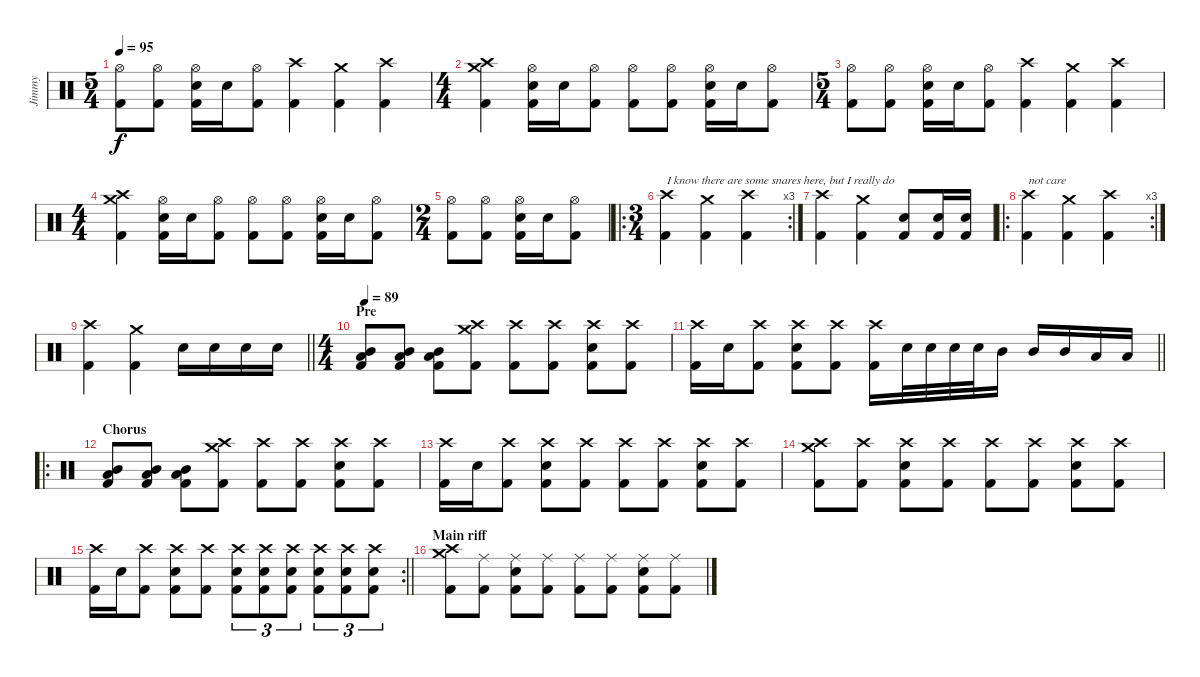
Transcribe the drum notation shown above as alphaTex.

\track ("Jimmy" "Jimmy") {instrument percussion}
\staff {score}
\articulation defaults
\ts (5 4)
\tempo 95
\clef neutral
\ks c
("Kick (hit) 2" "Hi-Hat (open)").8{dy f} ("Kick (hit) 2" "Hi-Hat (open)").8 ("Kick (hit) 2" "Hi-Hat (open)" "Electric Snare (hit)").16 "Electric Snare (hit)".16 ("Kick (hit) 2" "Hi-Hat (open)").8 ("Crash high (hit)" "Kick (hit) 2").4 ("Crash medium (hit)" "Kick (hit) 2").4 ("Crash high (hit)" "Kick (hit) 2").4 |
\ts (4 4)
("Crash medium (hit)" "Crash high (hit)" "Kick (hit) 2").4 ("Kick (hit) 2" "Hi-Hat (open)" "Electric Snare (hit)").16 "Electric Snare (hit)".16 ("Kick (hit) 2" "Hi-Hat (open)").8 ("Kick (hit) 2" "Hi-Hat (open)").8 ("Kick (hit) 2" "Hi-Hat (open)").8 ("Kick (hit) 2" "Hi-Hat (open)" "Electric Snare (hit)").16 "Electric Snare (hit)".16 ("Kick (hit) 2" "Hi-Hat (open)").8 |
\ts (5 4)
("Kick (hit) 2" "Hi-Hat (open)").8 ("Kick (hit) 2" "Hi-Hat (open)").8 ("Kick (hit) 2" "Hi-Hat (open)" "Electric Snare (hit)").16 "Electric Snare (hit)".16 ("Kick (hit) 2" "Hi-Hat (open)").8 ("Crash high (hit)" "Kick (hit) 2").4 ("Crash medium (hit)" "Kick (hit) 2").4 ("Crash high (hit)" "Kick (hit) 2").4 |
\ts (4 4)
("Crash medium (hit)" "Crash high (hit)" "Kick (hit) 2").4 ("Kick (hit) 2" "Hi-Hat (open)" "Electric Snare (hit)").16 "Electric Snare (hit)".16 ("Kick (hit) 2" "Hi-Hat (open)").8 ("Kick (hit) 2" "Hi-Hat (open)").8 ("Kick (hit) 2" "Hi-Hat (open)").8 ("Kick (hit) 2" "Hi-Hat (open)" "Electric Snare (hit)").16 "Electric Snare (hit)".16 ("Kick (hit) 2" "Hi-Hat (open)").8 |
\ts (2 4)
("Kick (hit) 2" "Hi-Hat (open)").8 ("Kick (hit) 2" "Hi-Hat (open)").8 ("Kick (hit) 2" "Hi-Hat (open)" "Electric Snare (hit)").16 "Electric Snare (hit)".16 ("Kick (hit) 2" "Hi-Hat (open)").8 |
\ro
\rc 3
\ts (3 4)
("Kick (hit) 2" "Crash high (hit)").4{txt "I know there are some snares here, but I really do"} ("Kick (hit) 2" "Crash medium (hit)").4 ("Kick (hit) 2" "Crash high (hit)").4 |
("Kick (hit) 2" "Crash high (hit)").4 ("Kick (hit) 2" "Crash medium (hit)").4 ("Kick (hit) 2" "Electric Snare (hit)").8 ("Kick (hit) 2" "Electric Snare (hit)").16 ("Kick (hit) 2" "Electric Snare (hit)").16 |
\ro
\rc 3
("Kick (hit) 2" "Crash high (hit)").4{txt "not care"} ("Kick (hit) 2" "Crash medium (hit)").4 ("Kick (hit) 2" "Crash high (hit)").4 |
\barLineRight lightlight
("Kick (hit) 2" "Crash high (hit)").4 ("Kick (hit) 2" "Crash medium (hit)").4 "Electric Snare (hit)".16 "Electric Snare (hit)".16 "Electric Snare (hit)".16 "Electric Snare (hit)".16 |
\ts (4 4)
\section ("" "Pre")
\tempo 89
("Low Tom (hit)" "Kick (hit) 2" "Mid Tom (hit)").8 ("Low Tom (hit)" "Kick (hit) 2" "Mid Tom (hit)").8 ("Low Tom (hit)" "Kick (hit) 2" "Mid Tom (hit)").8 ("Kick (hit) 2" "Crash high (hit)" "Crash medium (hit)").8 ("Kick (hit) 2" "Crash high (hit)").8 ("Kick (hit) 2" "Crash high (hit)").8 ("Kick (hit) 2" "Crash high (hit)" "Electric Snare (hit)").8 ("Kick (hit) 2" "Crash high (hit)").8 |
\barLineRight lightlight
("Kick (hit) 2" "Crash high (hit)").16 "Electric Snare (hit)".16 ("Kick (hit) 2" "Crash high (hit)").8 ("Kick (hit) 2" "Crash high (hit)" "Electric Snare (hit)").8 ("Kick (hit) 2" "Crash high (hit)").8 ("Kick (hit) 2" "Crash high (hit)").16 "Electric Snare (hit)".32 "Electric Snare (hit)".32 "Electric Snare (hit)".32 "Electric Snare (hit)".32 "Mid Tom (hit)".16 "Mid Tom (hit)".16 "Mid Tom (hit)".16 "Low Tom (hit)".16 "Low Tom (hit)".16 |
\ro
\section ("" "Chorus")
("Low Tom (hit)" "Kick (hit) 2" "Mid Tom (hit)").8 ("Low Tom (hit)" "Kick (hit) 2" "Mid Tom (hit)").8 ("Low Tom (hit)" "Kick (hit) 2" "Mid Tom (hit)").8 ("Kick (hit) 2" "Crash high (hit)" "Crash medium (hit)").8 ("Kick (hit) 2" "Crash high (hit)").8 ("Kick (hit) 2" "Crash high (hit)").8 ("Kick (hit) 2" "Crash high (hit)" "Electric Snare (hit)").8 ("Kick (hit) 2" "Crash high (hit)").8 |
("Kick (hit) 2" "Crash high (hit)").16 "Electric Snare (hit)".16 ("Kick (hit) 2" "Crash high (hit)").8 ("Kick (hit) 2" "Crash high (hit)" "Electric Snare (hit)").8 ("Kick (hit) 2" "Crash high (hit)").8 ("Kick (hit) 2" "Crash high (hit)").8 ("Kick (hit) 2" "Crash high (hit)").8 ("Kick (hit) 2" "Crash high (hit)" "Electric Snare (hit)").8 ("Kick (hit) 2" "Crash high (hit)").8 |
("Kick (hit) 2" "Crash high (hit)" "Crash medium (hit)").8 ("Kick (hit) 2" "Crash high (hit)").8 ("Kick (hit) 2" "Crash high (hit)" "Electric Snare (hit)").8 ("Kick (hit) 2" "Crash high (hit)").8 ("Kick (hit) 2" "Crash high (hit)").8 ("Kick (hit) 2" "Crash high (hit)").8 ("Kick (hit) 2" "Crash high (hit)" "Electric Snare (hit)").8 ("Kick (hit) 2" "Crash high (hit)").8 |
\rc 2
\barLineRight lightlight
("Kick (hit) 2" "Crash high (hit)").16 "Electric Snare (hit)".16 ("Kick (hit) 2" "Crash high (hit)").8 ("Kick (hit) 2" "Crash high (hit)" "Electric Snare (hit)").8 ("Kick (hit) 2" "Crash high (hit)").8 ("Kick (hit) 2" "Crash high (hit)" "Electric Snare (hit)").8{tu (3 2)} ("Kick (hit) 2" "Crash high (hit)" "Electric Snare (hit)").8{tu (3 2)} ("Kick (hit) 2" "Crash high (hit)" "Electric Snare (hit)").8{tu (3 2)} ("Kick (hit) 2" "Crash high (hit)" "Electric Snare (hit)").8{tu (3 2)} ("Kick (hit) 2" "Crash high (hit)" "Electric Snare (hit)").8{tu (3 2)} ("Kick (hit) 2" "Crash high (hit)" "Electric Snare (hit)").8{tu (3 2)} |
\section ("" "Main riff")
("Kick (hit) 2" "Crash medium (hit)" "Crash high (hit)").8 ("Kick (hit) 2" "Ride (middle)").8 ("Kick (hit) 2" "Ride (middle)" "Electric Snare (hit)").8 ("Kick (hit) 2" "Ride (middle)").8 ("Kick (hit) 2" "Ride (middle)").8 ("Kick (hit) 2" "Ride (middle)").8 ("Kick (hit) 2" "Ride (middle)" "Electric Snare (hit)").8 ("Kick (hit) 2" "Ride (middle)").8
